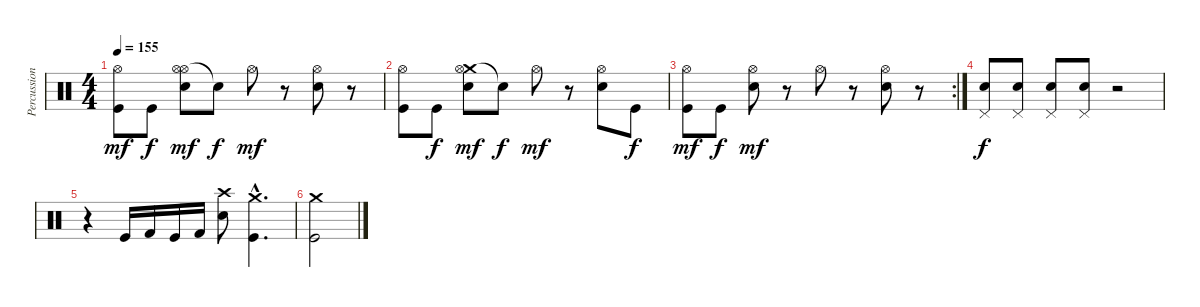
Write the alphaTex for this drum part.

\track ("Percussions" "Percussion") {instrument percussion}
\staff {score}
\articulation defaults
\ts (4 4)
\tempo 155
\clef neutral
\ks c
("Kick (hit)" "Hi-Hat (open)").8{dy mf} "Kick (hit)".8{dy f} ("Hi-Hat (open)" "Electric Snare (hit)" "Hi-Hat (open)").8{dy mf} "Snare (hit)"{t}.8{dy f} "Hi-Hat (open)".8{dy mf} r.8 ("Electric Snare (hit)" "Hi-Hat (open)").8 r.8 |
("Kick (hit)" "Hi-Hat (open)").8 "Kick (hit)".8{dy f} ("Crash medium (hit)" "Electric Snare (hit)" "Hi-Hat (open)").8{dy mf} "Snare (hit)"{t}.8{dy f} "Hi-Hat (open)".8{dy mf} r.8 ("Electric Snare (hit)" "Hi-Hat (open)").8 "Kick (hit)".8{dy f} |
\rc 2
("Kick (hit)" "Hi-Hat (open)").8{dy mf} "Kick (hit)".8{dy f} ("Electric Snare (hit)" "Hi-Hat (open)").8{dy mf} r.8 "Hi-Hat (open)".8 r.8 ("Electric Snare (hit)" "Hi-Hat (open)").8 r.8 |
("Electric Snare (hit)" "Pedal Hi-Hat (hit)").8{dy f} ("Electric Snare (hit)" "Pedal Hi-Hat (hit)").8 ("Electric Snare (hit)" "Pedal Hi-Hat (hit)").8 ("Electric Snare (hit)" "Pedal Hi-Hat (hit)").8 r.2 |
r.4 "Kick (hit)".16 "Kick (hit) 2".16 "Kick (hit)".16 "Kick (hit) 2".16 ("Electric Snare (hit)" "Crash high (hit)").8 ("Kick (hit)"{hac} "Crash medium (hit)"{hac}).4{d} |
("Kick (hit)" "Crash medium (hit)").2
